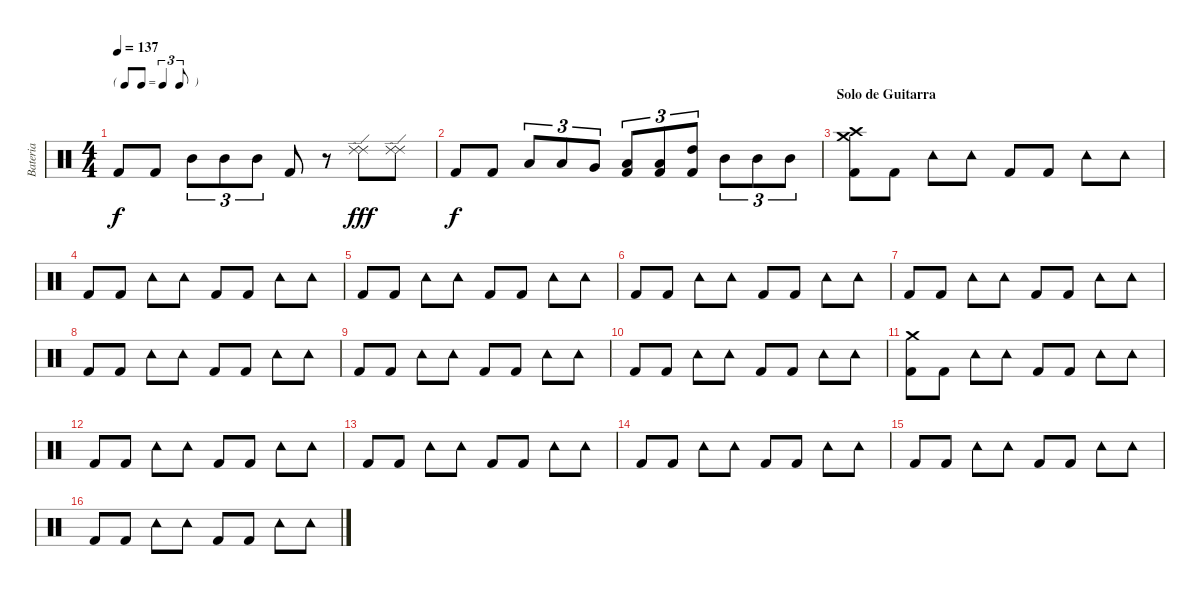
\track ("Bateria" "Bateria") {instrument percussion}
\staff {score}
\articulation defaults
\ts (4 4)
\tf triplet8th
\tempo 137
\clef neutral
\ks c "Kick (hit) 2".8{dy f} "Kick (hit) 2".8 "Mid Tom (hit)".8{tu (3 2)} "Mid Tom (hit)".8{tu (3 2)} "Mid Tom (hit)".8{tu (3 2)} "Kick (hit) 2".8
r.8 ("Ride (edge) 2" "Ride (edge) 2").8{dy fff} ("Ride (edge) 2" "Ride (edge) 2").8 |
"Kick (hit) 2".8{dy f} "Kick (hit) 2".8 "Low Tom (hit)".8{tu (3 2)} "Low Tom (hit)".8{tu (3 2)} "Very Low Tom (hit)".8{tu (3 2)} ("Kick (hit) 2" "Low Tom (hit)").8{tu (3 2)} ("Kick (hit) 2" "Low Tom (hit)").8{tu (3 2)} ("Kick (hit) 2" "High Tom (hit)").8{tu (3 2)} "Mid Tom (hit)".8{tu (3 2)} "Mid Tom (hit)".8{tu (3 2)} "Mid Tom (hit)".8{tu (3 2)} |
\section ("" "Solo de Guitarra")
("Kick (hit) 2" "Crash high (hit)" "Crash medium (hit)").8 "Kick (hit) 2".8 "Tambourine (hit)".8 "Tambourine (hit)".8 "Kick (hit) 2".8 "Kick (hit) 2".8 "Tambourine (hit)".8 "Tambourine (hit)".8 |
"Kick (hit) 2".8 "Kick (hit) 2".8 "Tambourine (hit)".8 "Tambourine (hit)".8 "Kick (hit) 2".8 "Kick (hit) 2".8 "Tambourine (hit)".8 "Tambourine (hit)".8 |
"Kick (hit) 2".8 "Kick (hit) 2".8 "Tambourine (hit)".8 "Tambourine (hit)".8 "Kick (hit) 2".8 "Kick (hit) 2".8 "Tambourine (hit)".8 "Tambourine (hit)".8 |
"Kick (hit) 2".8 "Kick (hit) 2".8 "Tambourine (hit)".8 "Tambourine (hit)".8 "Kick (hit) 2".8 "Kick (hit) 2".8 "Tambourine (hit)".8 "Tambourine (hit)".8 |
"Kick (hit) 2".8 "Kick (hit) 2".8 "Tambourine (hit)".8 "Tambourine (hit)".8 "Kick (hit) 2".8 "Kick (hit) 2".8 "Tambourine (hit)".8 "Tambourine (hit)".8 |
"Kick (hit) 2".8 "Kick (hit) 2".8 "Tambourine (hit)".8 "Tambourine (hit)".8 "Kick (hit) 2".8 "Kick (hit) 2".8 "Tambourine (hit)".8 "Tambourine (hit)".8 |
"Kick (hit) 2".8 "Kick (hit) 2".8 "Tambourine (hit)".8 "Tambourine (hit)".8 "Kick (hit) 2".8 "Kick (hit) 2".8 "Tambourine (hit)".8 "Tambourine (hit)".8 |
"Kick (hit) 2".8 "Kick (hit) 2".8 "Tambourine (hit)".8 "Tambourine (hit)".8 "Kick (hit) 2".8 "Kick (hit) 2".8 "Tambourine (hit)".8 "Tambourine (hit)".8 |
("Kick (hit) 2" "Crash medium (hit)").8 "Kick (hit) 2".8 "Tambourine (hit)".8 "Tambourine (hit)".8 "Kick (hit) 2".8 "Kick (hit) 2".8 "Tambourine (hit)".8 "Tambourine (hit)".8 |
"Kick (hit) 2".8 "Kick (hit) 2".8 "Tambourine (hit)".8 "Tambourine (hit)".8 "Kick (hit) 2".8 "Kick (hit) 2".8 "Tambourine (hit)".8 "Tambourine (hit)".8 |
"Kick (hit) 2".8 "Kick (hit) 2".8 "Tambourine (hit)".8 "Tambourine (hit)".8 "Kick (hit) 2".8 "Kick (hit) 2".8 "Tambourine (hit)".8 "Tambourine (hit)".8 |
"Kick (hit) 2".8 "Kick (hit) 2".8 "Tambourine (hit)".8 "Tambourine (hit)".8 "Kick (hit) 2".8 "Kick (hit) 2".8 "Tambourine (hit)".8 "Tambourine (hit)".8 |
"Kick (hit) 2".8 "Kick (hit) 2".8 "Tambourine (hit)".8 "Tambourine (hit)".8 "Kick (hit) 2".8 "Kick (hit) 2".8 "Tambourine (hit)".8 "Tambourine (hit)".8 |
"Kick (hit) 2".8 "Kick (hit) 2".8 "Tambourine (hit)".8 "Tambourine (hit)".8 "Kick (hit) 2".8 "Kick (hit) 2".8 "Tambourine (hit)".8 "Tambourine (hit)".8
